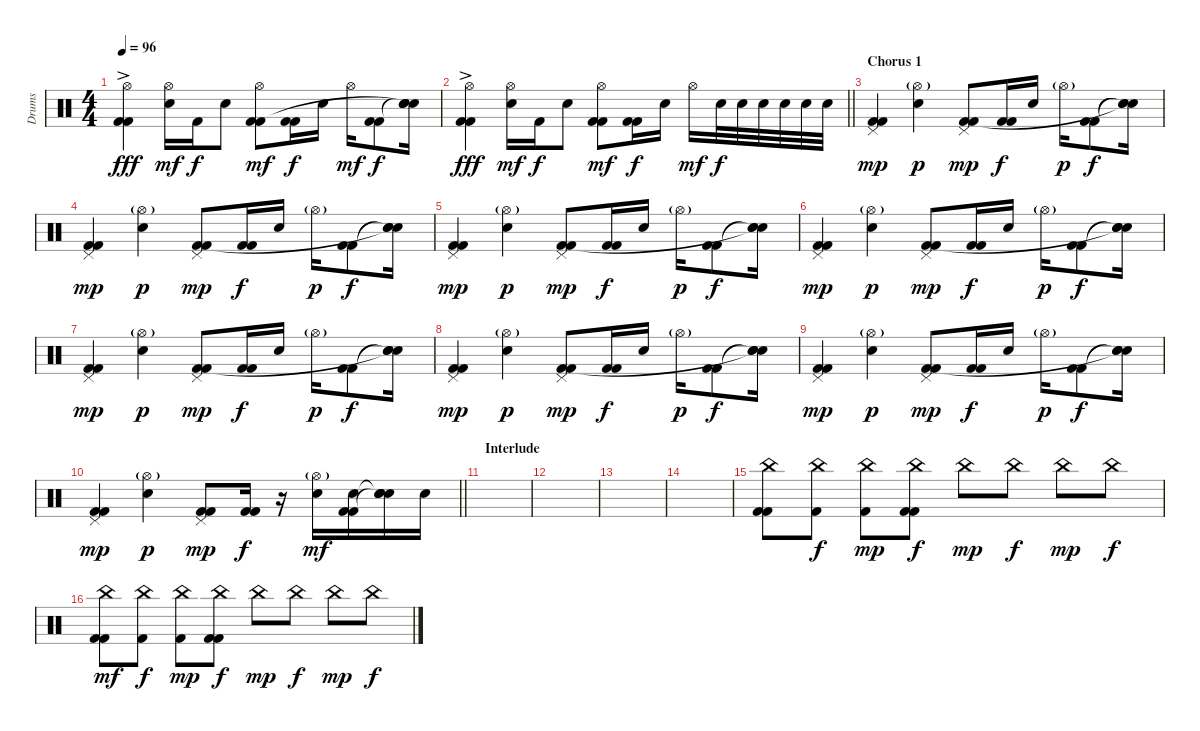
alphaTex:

\track ("Drums" "Drums") {instrument percussion}
\staff {score}
\articulation defaults
\ts (4 4)
\tempo 96
\clef neutral
\ks c
("Hi-Hat (open)"{ac} "Kick (hit) 2" "Kick (hit) 2").4{dy fff} ("Hi-Hat (open)" "Snare (hit) 2").16{dy mf} "Kick (hit) 2".16{dy f} "Snare (hit) 2".8 ("Hi-Hat (open)" "Kick (hit) 2" "Kick (hit) 2").8{dy mf} ("Kick (hit) 2" "Kick (hit) 2").16{dy f} "Snare (hit) 2".16 "Hi-Hat (open)".16{dy mf} ("Kick (hit) 2" "Kick (hit) 2").8{dy f} ("Snare (hit)"{t} "Snare (hit) 2" "Snare (hit)"{t} "Snare (hit)").16 |
\barLineRight lightlight
("Hi-Hat (open)"{ac} "Kick (hit) 2" "Kick (hit) 2").4{dy fff} ("Hi-Hat (open)" "Snare (hit) 2").16{dy mf} "Kick (hit) 2".16{dy f} "Snare (hit) 2".8 ("Hi-Hat (open)" "Kick (hit) 2" "Kick (hit) 2").8{dy mf} ("Kick (hit) 2" "Kick (hit) 2").16{dy f} "Snare (hit) 2".16 "Hi-Hat (open)".16{dy mf} "Snare (hit) 2".32{dy f} "Snare (hit) 2".32 "Snare (hit) 2".32 "Snare (hit) 2".32 "Snare (hit) 2".32 "Snare (hit) 2".32 |
\section ("" "Chorus 1")
("Pedal Hi-Hat (hit)" "Kick (hit) 2" "Kick (hit) 2").4{dy mp} ("Hi-Hat (open)"{g} "Snare (hit) 2").4{dy p} ("Pedal Hi-Hat (hit)" "Kick (hit) 2" "Kick (hit) 2").8{dy mp} ("Kick (hit) 2" "Kick (hit) 2").16{dy f} "Snare (hit) 2".16 "Hi-Hat (open)"{g}.16{dy p} ("Kick (hit) 2" "Kick (hit) 2").8{dy f} ("Snare (hit)"{t} "Snare (hit)"{t} "Snare (hit)"{t}).16 |
("Pedal Hi-Hat (hit)" "Kick (hit) 2" "Kick (hit) 2").4{dy mp} ("Hi-Hat (open)"{g} "Snare (hit) 2").4{dy p} ("Pedal Hi-Hat (hit)" "Kick (hit) 2" "Kick (hit) 2").8{dy mp} ("Kick (hit) 2" "Kick (hit) 2").16{dy f} "Snare (hit) 2".16 "Hi-Hat (open)"{g}.16{dy p} ("Kick (hit) 2" "Kick (hit) 2").8{dy f} ("Snare (hit)"{t} "Snare (hit)"{t} "Snare (hit)"{t}).16 |
("Pedal Hi-Hat (hit)" "Kick (hit) 2" "Kick (hit) 2").4{dy mp} ("Hi-Hat (open)"{g} "Snare (hit) 2").4{dy p} ("Pedal Hi-Hat (hit)" "Kick (hit) 2" "Kick (hit) 2").8{dy mp} ("Kick (hit) 2" "Kick (hit) 2").16{dy f} "Snare (hit) 2".16 "Hi-Hat (open)"{g}.16{dy p} ("Kick (hit) 2" "Kick (hit) 2").8{dy f} ("Snare (hit)"{t} "Snare (hit)"{t} "Snare (hit)"{t}).16 |
("Pedal Hi-Hat (hit)" "Kick (hit) 2" "Kick (hit) 2").4{dy mp} ("Hi-Hat (open)"{g} "Snare (hit) 2").4{dy p} ("Pedal Hi-Hat (hit)" "Kick (hit) 2" "Kick (hit) 2").8{dy mp} ("Kick (hit) 2" "Kick (hit) 2").16{dy f} "Snare (hit) 2".16 "Hi-Hat (open)"{g}.16{dy p} ("Kick (hit) 2" "Kick (hit) 2").8{dy f} ("Snare (hit)"{t} "Snare (hit)"{t} "Snare (hit)"{t}).16 |
("Pedal Hi-Hat (hit)" "Kick (hit) 2" "Kick (hit) 2").4{dy mp} ("Hi-Hat (open)"{g} "Snare (hit) 2").4{dy p} ("Pedal Hi-Hat (hit)" "Kick (hit) 2" "Kick (hit) 2").8{dy mp} ("Kick (hit) 2" "Kick (hit) 2").16{dy f} "Snare (hit) 2".16 "Hi-Hat (open)"{g}.16{dy p} ("Kick (hit) 2" "Kick (hit) 2").8{dy f} ("Snare (hit)"{t} "Snare (hit)"{t} "Snare (hit)"{t}).16 |
("Pedal Hi-Hat (hit)" "Kick (hit) 2" "Kick (hit) 2").4{dy mp} ("Hi-Hat (open)"{g} "Snare (hit) 2").4{dy p} ("Pedal Hi-Hat (hit)" "Kick (hit) 2" "Kick (hit) 2").8{dy mp} ("Kick (hit) 2" "Kick (hit) 2").16{dy f} "Snare (hit) 2".16 "Hi-Hat (open)"{g}.16{dy p} ("Kick (hit) 2" "Kick (hit) 2").8{dy f} ("Snare (hit)"{t} "Snare (hit)"{t} "Snare (hit)"{t}).16 |
("Pedal Hi-Hat (hit)" "Kick (hit) 2" "Kick (hit) 2").4{dy mp} ("Hi-Hat (open)"{g} "Snare (hit) 2").4{dy p} ("Pedal Hi-Hat (hit)" "Kick (hit) 2" "Kick (hit) 2").8{dy mp} ("Kick (hit) 2" "Kick (hit) 2").16{dy f} "Snare (hit) 2".16 "Hi-Hat (open)"{g}.16{dy p} ("Kick (hit) 2" "Kick (hit) 2").8{dy f} ("Snare (hit)"{t} "Snare (hit)"{t} "Snare (hit)"{t}).16 |
\barLineRight lightlight
("Pedal Hi-Hat (hit)" "Kick (hit) 2" "Kick (hit) 2").4{dy mp} ("Hi-Hat (open)"{g} "Snare (hit) 2").4{dy p} ("Pedal Hi-Hat (hit)" "Kick (hit) 2" "Kick (hit) 2").8{dy mp} ("Kick (hit) 2" "Kick (hit) 2").16{dy f} r.16 ("Hi-Hat (open)"{g} "Snare (hit) 2").16{dy mf} ("Snare (hit) 2" "Kick (hit) 2" "Kick (hit) 2").16 ("Snare (hit)"{t} "Snare (hit) 2" "Snare (hit)"{t} "Snare (hit)").16 "Snare (hit) 2".16 |
\section ("" "Interlude")
|
|
|
|
("China (hit)" "Kick (hit) 2" "Kick (hit) 2").8 ("China (hit)" "Kick (hit) 2").8{dy f} ("China (hit)" "Kick (hit) 2").8{dy mp} ("China (hit)" "Kick (hit) 2" "Kick (hit) 2").8{dy f} "China (hit)".8{dy mp} "China (hit)".8{dy f} "China (hit)".8{dy mp} "China (hit)".8{dy f} |
("China (hit)" "Kick (hit) 2" "Kick (hit) 2").8{dy mf} ("China (hit)" "Kick (hit) 2").8{dy f} ("China (hit)" "Kick (hit) 2").8{dy mp} ("China (hit)" "Kick (hit) 2" "Kick (hit) 2").8{dy f} "China (hit)".8{dy mp} "China (hit)".8{dy f} "China (hit)".8{dy mp} "China (hit)".8{dy f}
